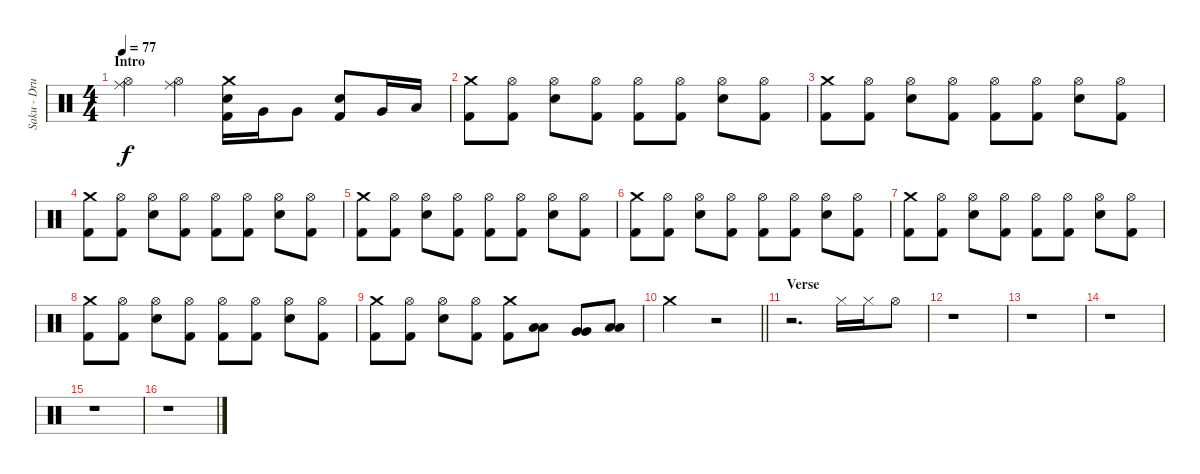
\track ("Saku - Drums" "Saku - Dru") {instrument percussion}
\staff {score}
\articulation defaults
\ts (4 4)
\section ("" "Intro")
\tempo 77
\clef neutral
\ks c
("Hi-Hat (open)" "Ride (middle)").4{dy f} ("Hi-Hat (open)" "Ride (middle)").4 ("Kick (hit) 2" "Electric Snare (hit)" "Crash medium (hit)").16 "Very Low Tom (hit)".16 "Very Low Tom (hit)".8 ("Kick (hit) 2" "Electric Snare (hit)").8 "Very Low Tom (hit)".16 "Low Floor Tom (hit)".16 |
("Kick (hit) 2" "Crash medium (hit)").8 ("Kick (hit) 2" "Hi-Hat (open)").8 ("Electric Snare (hit)" "Hi-Hat (open)").8 ("Kick (hit) 2" "Hi-Hat (open)").8 ("Kick (hit) 2" "Hi-Hat (open)").8 ("Kick (hit) 2" "Hi-Hat (open)").8 ("Electric Snare (hit)" "Hi-Hat (open)").8 ("Kick (hit) 2" "Hi-Hat (open)").8 |
("Kick (hit) 2" "Crash medium (hit)").8 ("Kick (hit) 2" "Hi-Hat (open)").8 ("Electric Snare (hit)" "Hi-Hat (open)").8 ("Kick (hit) 2" "Hi-Hat (open)").8 ("Kick (hit) 2" "Hi-Hat (open)").8 ("Kick (hit) 2" "Hi-Hat (open)").8 ("Electric Snare (hit)" "Hi-Hat (open)").8 ("Kick (hit) 2" "Hi-Hat (open)").8 |
("Kick (hit) 2" "Crash medium (hit)").8 ("Kick (hit) 2" "Hi-Hat (open)").8 ("Electric Snare (hit)" "Hi-Hat (open)").8 ("Kick (hit) 2" "Hi-Hat (open)").8 ("Kick (hit) 2" "Hi-Hat (open)").8 ("Kick (hit) 2" "Hi-Hat (open)").8 ("Electric Snare (hit)" "Hi-Hat (open)").8 ("Kick (hit) 2" "Hi-Hat (open)").8 |
("Kick (hit) 2" "Crash medium (hit)").8 ("Kick (hit) 2" "Hi-Hat (open)").8 ("Electric Snare (hit)" "Hi-Hat (open)").8 ("Kick (hit) 2" "Hi-Hat (open)").8 ("Kick (hit) 2" "Hi-Hat (open)").8 ("Kick (hit) 2" "Hi-Hat (open)").8 ("Electric Snare (hit)" "Hi-Hat (open)").8 ("Kick (hit) 2" "Hi-Hat (open)").8 |
("Kick (hit) 2" "Crash medium (hit)").8 ("Kick (hit) 2" "Hi-Hat (open)").8 ("Electric Snare (hit)" "Hi-Hat (open)").8 ("Kick (hit) 2" "Hi-Hat (open)").8 ("Kick (hit) 2" "Hi-Hat (open)").8 ("Kick (hit) 2" "Hi-Hat (open)").8 ("Electric Snare (hit)" "Hi-Hat (open)").8 ("Kick (hit) 2" "Hi-Hat (open)").8 |
("Kick (hit) 2" "Crash medium (hit)").8 ("Kick (hit) 2" "Hi-Hat (open)").8 ("Electric Snare (hit)" "Hi-Hat (open)").8 ("Kick (hit) 2" "Hi-Hat (open)").8 ("Kick (hit) 2" "Hi-Hat (open)").8 ("Kick (hit) 2" "Hi-Hat (open)").8 ("Electric Snare (hit)" "Hi-Hat (open)").8 ("Kick (hit) 2" "Hi-Hat (open)").8 |
("Kick (hit) 2" "Crash medium (hit)").8 ("Kick (hit) 2" "Hi-Hat (open)").8 ("Electric Snare (hit)" "Hi-Hat (open)").8 ("Kick (hit) 2" "Hi-Hat (open)").8 ("Kick (hit) 2" "Hi-Hat (open)").8 ("Kick (hit) 2" "Hi-Hat (open)").8 ("Electric Snare (hit)" "Hi-Hat (open)").8 ("Kick (hit) 2" "Hi-Hat (open)").8 |
("Kick (hit) 2" "Crash medium (hit)").8 ("Kick (hit) 2" "Hi-Hat (open)").8 ("Electric Snare (hit)" "Hi-Hat (open)").8 ("Kick (hit) 2" "Hi-Hat (open)").8 ("Kick (hit) 2" "Crash medium (hit)").8 ("Low Tom (hit)" "Low Tom (hit)").8 ("Very Low Tom (hit)" "Very Low Tom (hit)").8 ("Low Floor Tom (hit)" "Low Floor Tom (hit)").8 |
\barLineRight lightlight "Crash medium (hit)".2
r.2 |
\section ("" "Verse")
r.2{d} "Hi-Hat (closed)".16 "Hi-Hat (closed)".16 "Hi-Hat (open)".8 |
r.1 |
r.1 |
r.1 |
r.1 |
r.1
